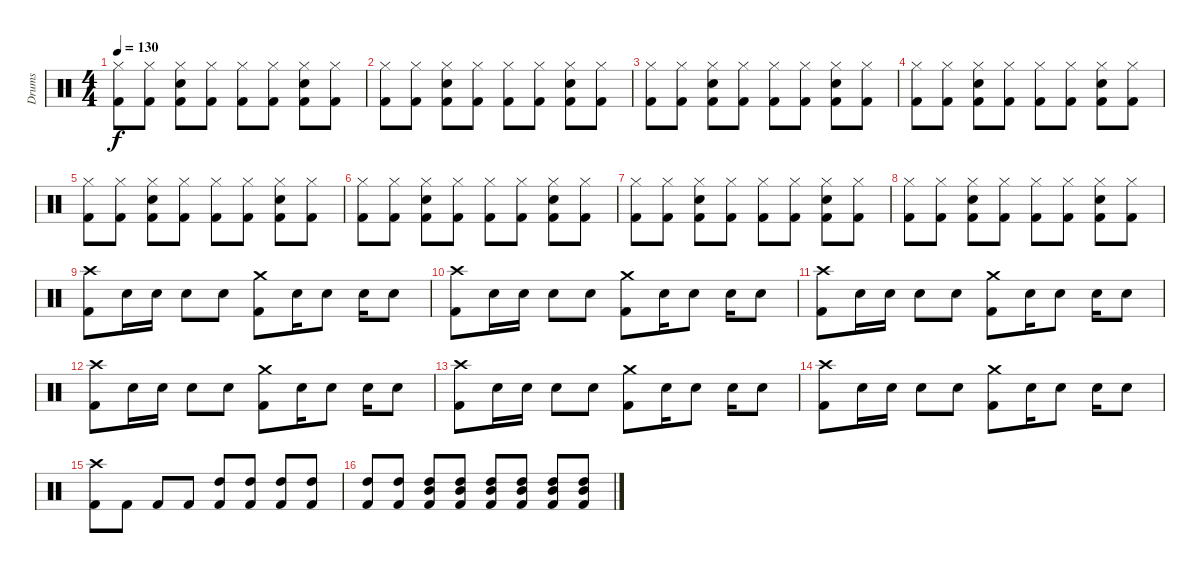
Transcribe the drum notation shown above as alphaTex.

\track ("Drums" "Drums") {instrument percussion}
\staff {score}
\articulation defaults
\ts (4 4)
\tempo 130
\clef neutral
\ks c
("Hi-Hat (closed)" "Kick (hit) 2").8{dy f} ("Hi-Hat (closed)" "Kick (hit) 2").8 ("Hi-Hat (closed)" "Snare (hit) 2" "Kick (hit) 2").8 ("Hi-Hat (closed)" "Kick (hit) 2").8 ("Hi-Hat (closed)" "Kick (hit) 2").8 ("Hi-Hat (closed)" "Kick (hit) 2").8 ("Hi-Hat (closed)" "Snare (hit) 2" "Kick (hit) 2").8 ("Hi-Hat (closed)" "Kick (hit) 2").8 |
("Hi-Hat (closed)" "Kick (hit) 2").8 ("Hi-Hat (closed)" "Kick (hit) 2").8 ("Hi-Hat (closed)" "Snare (hit) 2" "Kick (hit) 2").8 ("Hi-Hat (closed)" "Kick (hit) 2").8 ("Hi-Hat (closed)" "Kick (hit) 2").8 ("Hi-Hat (closed)" "Kick (hit) 2").8 ("Hi-Hat (closed)" "Snare (hit) 2" "Kick (hit) 2").8 ("Hi-Hat (closed)" "Kick (hit) 2").8 |
("Hi-Hat (closed)" "Kick (hit) 2").8 ("Hi-Hat (closed)" "Kick (hit) 2").8 ("Hi-Hat (closed)" "Snare (hit) 2" "Kick (hit) 2").8 ("Hi-Hat (closed)" "Kick (hit) 2").8 ("Hi-Hat (closed)" "Kick (hit) 2").8 ("Hi-Hat (closed)" "Kick (hit) 2").8 ("Hi-Hat (closed)" "Snare (hit) 2" "Kick (hit) 2").8 ("Hi-Hat (closed)" "Kick (hit) 2").8 |
("Hi-Hat (closed)" "Kick (hit) 2").8 ("Hi-Hat (closed)" "Kick (hit) 2").8 ("Hi-Hat (closed)" "Snare (hit) 2" "Kick (hit) 2").8 ("Hi-Hat (closed)" "Kick (hit) 2").8 ("Hi-Hat (closed)" "Kick (hit) 2").8 ("Hi-Hat (closed)" "Kick (hit) 2").8 ("Hi-Hat (closed)" "Snare (hit) 2" "Kick (hit) 2").8 ("Hi-Hat (closed)" "Kick (hit) 2").8 |
("Hi-Hat (closed)" "Kick (hit) 2").8 ("Hi-Hat (closed)" "Kick (hit) 2").8 ("Hi-Hat (closed)" "Snare (hit) 2" "Kick (hit) 2").8 ("Hi-Hat (closed)" "Kick (hit) 2").8 ("Hi-Hat (closed)" "Kick (hit) 2").8 ("Hi-Hat (closed)" "Kick (hit) 2").8 ("Hi-Hat (closed)" "Snare (hit) 2" "Kick (hit) 2").8 ("Hi-Hat (closed)" "Kick (hit) 2").8 |
("Hi-Hat (closed)" "Kick (hit) 2").8 ("Hi-Hat (closed)" "Kick (hit) 2").8 ("Hi-Hat (closed)" "Snare (hit) 2" "Kick (hit) 2").8 ("Hi-Hat (closed)" "Kick (hit) 2").8 ("Hi-Hat (closed)" "Kick (hit) 2").8 ("Hi-Hat (closed)" "Kick (hit) 2").8 ("Hi-Hat (closed)" "Snare (hit) 2" "Kick (hit) 2").8 ("Hi-Hat (closed)" "Kick (hit) 2").8 |
("Hi-Hat (closed)" "Kick (hit) 2").8 ("Hi-Hat (closed)" "Kick (hit) 2").8 ("Hi-Hat (closed)" "Snare (hit) 2" "Kick (hit) 2").8 ("Hi-Hat (closed)" "Kick (hit) 2").8 ("Hi-Hat (closed)" "Kick (hit) 2").8 ("Hi-Hat (closed)" "Kick (hit) 2").8 ("Hi-Hat (closed)" "Snare (hit) 2" "Kick (hit) 2").8 ("Hi-Hat (closed)" "Kick (hit) 2").8 |
("Hi-Hat (closed)" "Kick (hit) 2").8 ("Hi-Hat (closed)" "Kick (hit) 2").8 ("Hi-Hat (closed)" "Snare (hit) 2" "Kick (hit) 2").8 ("Hi-Hat (closed)" "Kick (hit) 2").8 ("Hi-Hat (closed)" "Kick (hit) 2").8 ("Hi-Hat (closed)" "Kick (hit) 2").8 ("Hi-Hat (closed)" "Snare (hit) 2" "Kick (hit) 2").8 ("Hi-Hat (closed)" "Kick (hit) 2").8 |
("Crash high (hit)" "Kick (hit) 2").8 "Snare (hit) 2".16 "Snare (hit) 2".16 "Snare (hit) 2".8 "Snare (hit) 2".8 ("Crash medium (hit)" "Kick (hit) 2").8 "Snare (hit) 2".16 "Snare (hit) 2".8 "Snare (hit) 2".16 "Snare (hit) 2".8 |
("Crash high (hit)" "Kick (hit) 2").8 "Snare (hit) 2".16 "Snare (hit) 2".16 "Snare (hit) 2".8 "Snare (hit) 2".8 ("Crash medium (hit)" "Kick (hit) 2").8 "Snare (hit) 2".16 "Snare (hit) 2".8 "Snare (hit) 2".16 "Snare (hit) 2".8 |
("Crash high (hit)" "Kick (hit) 2").8 "Snare (hit) 2".16 "Snare (hit) 2".16 "Snare (hit) 2".8 "Snare (hit) 2".8 ("Crash medium (hit)" "Kick (hit) 2").8 "Snare (hit) 2".16 "Snare (hit) 2".8 "Snare (hit) 2".16 "Snare (hit) 2".8 |
("Crash high (hit)" "Kick (hit) 2").8 "Snare (hit) 2".16 "Snare (hit) 2".16 "Snare (hit) 2".8 "Snare (hit) 2".8 ("Crash medium (hit)" "Kick (hit) 2").8 "Snare (hit) 2".16 "Snare (hit) 2".8 "Snare (hit) 2".16 "Snare (hit) 2".8 |
("Crash high (hit)" "Kick (hit) 2").8 "Snare (hit) 2".16 "Snare (hit) 2".16 "Snare (hit) 2".8 "Snare (hit) 2".8 ("Crash medium (hit)" "Kick (hit) 2").8 "Snare (hit) 2".16 "Snare (hit) 2".8 "Snare (hit) 2".16 "Snare (hit) 2".8 |
("Crash high (hit)" "Kick (hit) 2").8 "Snare (hit) 2".16 "Snare (hit) 2".16 "Snare (hit) 2".8 "Snare (hit) 2".8 ("Crash medium (hit)" "Kick (hit) 2").8 "Snare (hit) 2".16 "Snare (hit) 2".8 "Snare (hit) 2".16 "Snare (hit) 2".8 |
("Crash high (hit)" "Kick (hit) 2").8 "Kick (hit) 2".8 "Kick (hit) 2".8 "Kick (hit) 2".8 ("High Tom (hit)" "Kick (hit) 2").8 ("High Tom (hit)" "Kick (hit) 2").8 ("High Tom (hit)" "Kick (hit) 2").8 ("High Tom (hit)" "Kick (hit) 2").8 |
("High Tom (hit)" "Kick (hit) 2").8 ("High Tom (hit)" "Kick (hit) 2").8 ("Mid Tom (hit)" "High Tom (hit)" "Kick (hit) 2").8 ("Mid Tom (hit)" "High Tom (hit)" "Kick (hit) 2").8 ("Mid Tom (hit)" "High Tom (hit)" "Kick (hit) 2").8 ("Mid Tom (hit)" "High Tom (hit)" "Kick (hit) 2").8 ("Mid Tom (hit)" "High Tom (hit)" "Kick (hit) 2").8 ("Mid Tom (hit)" "High Tom (hit)" "Kick (hit) 2").8
